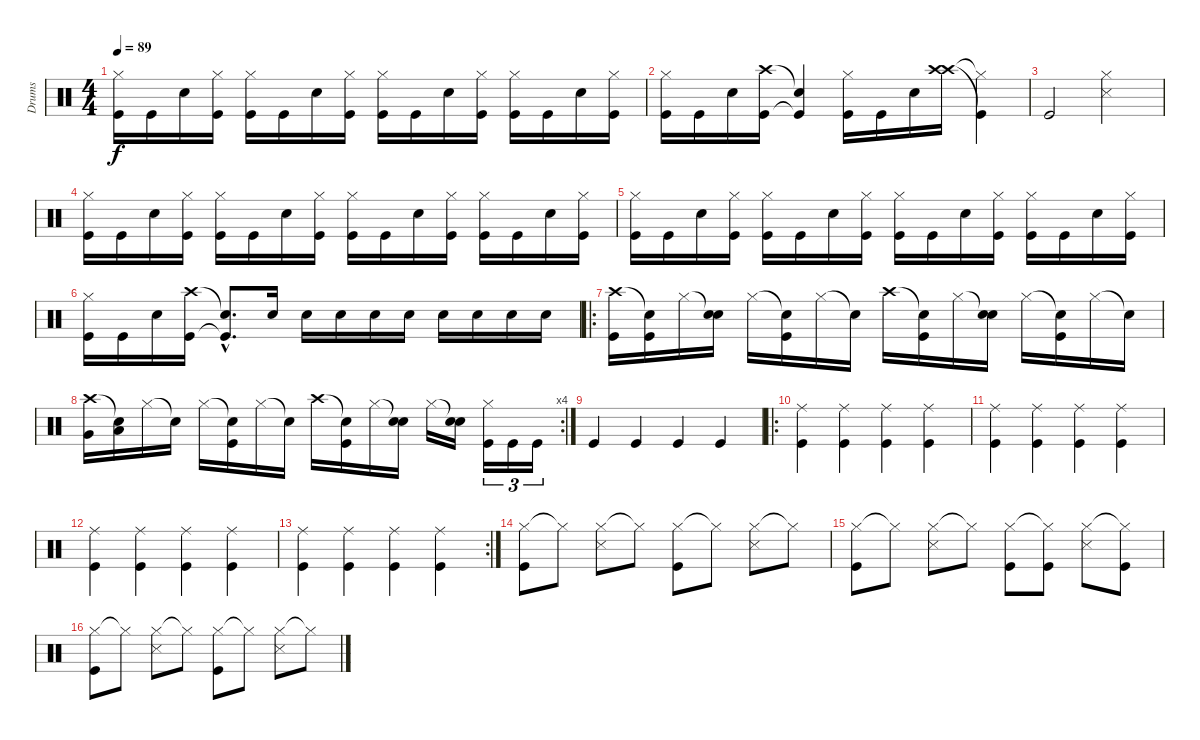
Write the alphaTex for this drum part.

\track ("Drums" "Drums") {instrument percussion}
\staff {score}
\articulation defaults
\ts (4 4)
\tempo 89
\clef neutral
\ks c
("Hi-Hat (closed)" "Kick (hit)").16{dy f} "Kick (hit)".16 "Snare (hit) 2".16 ("Hi-Hat (closed)" "Kick (hit)").16 ("Hi-Hat (closed)" "Kick (hit)").16 "Kick (hit)".16 "Snare (hit) 2".16 ("Hi-Hat (closed)" "Kick (hit)").16 ("Hi-Hat (closed)" "Kick (hit)").16 "Kick (hit)".16 "Snare (hit) 2".16 ("Hi-Hat (closed)" "Kick (hit)").16 ("Hi-Hat (closed)" "Kick (hit)").16 "Kick (hit)".16 "Snare (hit) 2".16 ("Hi-Hat (closed)" "Kick (hit)").16 |
("Hi-Hat (closed)" "Kick (hit)").16 "Kick (hit)".16 "Snare (hit) 2".16 ("Crash high (hit)" "Kick (hit)").16 ("Snare (hit)"{t} "Kick (hit)"{t}).4 ("Hi-Hat (closed)" "Kick (hit)").16 "Kick (hit)".16 "Snare (hit) 2".16 ("Crash high (hit)" "Crash high (hit)").16 ("Hi-Hat (closed)"{t} "Kick (hit)"{t}).4 |
"Kick (hit)".2 ("Hi-Hat (closed)" "Snare (side stick) 3").2 |
("Hi-Hat (closed)" "Kick (hit)").16 "Kick (hit)".16 "Snare (hit) 2".16 ("Hi-Hat (closed)" "Kick (hit)").16 ("Hi-Hat (closed)" "Kick (hit)").16 "Kick (hit)".16 "Snare (hit) 2".16 ("Hi-Hat (closed)" "Kick (hit)").16 ("Hi-Hat (closed)" "Kick (hit)").16 "Kick (hit)".16 "Snare (hit) 2".16 ("Hi-Hat (closed)" "Kick (hit)").16 ("Hi-Hat (closed)" "Kick (hit)").16 "Kick (hit)".16 "Snare (hit) 2".16 ("Hi-Hat (closed)" "Kick (hit)").16 |
("Hi-Hat (closed)" "Kick (hit)").16 "Kick (hit)".16 "Snare (hit) 2".16 ("Hi-Hat (closed)" "Kick (hit)").16 ("Hi-Hat (closed)" "Kick (hit)").16 "Kick (hit)".16 "Snare (hit) 2".16 ("Hi-Hat (closed)" "Kick (hit)").16 ("Hi-Hat (closed)" "Kick (hit)").16 "Kick (hit)".16 "Snare (hit) 2".16 ("Hi-Hat (closed)" "Kick (hit)").16 ("Hi-Hat (closed)" "Kick (hit)").16 "Kick (hit)".16 "Snare (hit) 2".16 ("Hi-Hat (closed)" "Kick (hit)").16 |
("Hi-Hat (closed)" "Kick (hit)").16 "Kick (hit)".16 "Snare (hit) 2".16 ("Crash high (hit)" "Kick (hit)").16 ("Snare (hit)"{hac t} "Kick (hit)"{hac t}).8{d} "Snare (hit) 2".16 "Snare (hit) 2".16 "Snare (hit) 2".16 "Snare (hit) 2".16 "Snare (hit) 2".16 "Snare (hit) 2".16 "Snare (hit) 2".16 "Snare (hit) 2".16 "Snare (hit) 2".16 |
\ro
("Crash high (hit)" "Kick (hit)").16 ("Snare (hit)"{t} "Kick (hit)").16 "Hi-Hat (closed)".16 ("Snare (hit)"{t} "Snare (hit) 2").16 "Hi-Hat (closed)".16 ("Snare (hit)"{t} "Kick (hit)").16 "Hi-Hat (closed)".16 "Snare (hit)"{t}.16 "Crash high (hit)".16 ("Snare (hit)"{t} "Kick (hit)").16 "Hi-Hat (closed)".16 ("Snare (hit)"{t} "Snare (hit) 2").16 "Hi-Hat (closed)".16 ("Snare (hit)"{t} "Kick (hit)").16 "Hi-Hat (closed)".16 "Snare (hit)"{t}.16 |
\rc 4
("Crash high (hit)" "Very Low Tom (hit)").16 ("Snare (hit)"{t} "Low Floor Tom (hit)").16 "Hi-Hat (closed)".16 "Snare (hit)"{t}.16 "Hi-Hat (closed)".16 ("Snare (hit)"{t} "Kick (hit)").16 "Hi-Hat (closed)".16 "Snare (hit)"{t}.16 "Crash high (hit)".16 ("Snare (hit)"{t} "Kick (hit)").16 "Hi-Hat (closed)".16 ("Snare (hit)"{t} "Snare (hit) 2").16 "Hi-Hat (closed)".16 ("Snare (hit)"{t} "Snare (hit) 2").16 ("Hi-Hat (closed)" "Kick (hit)").16{tu (3 2)} "Kick (hit)".16{tu (3 2)} "Kick (hit)".16{tu (3 2)} |
"Kick (hit)".4 "Kick (hit)".4 "Kick (hit)".4 "Kick (hit)".4 |
\ro
("Kick (hit)" "Ride (middle)").4 ("Kick (hit)" "Ride (middle)").4 ("Kick (hit)" "Ride (middle)").4 ("Kick (hit)" "Ride (middle)").4 |
("Kick (hit)" "Ride (middle)").4 ("Kick (hit)" "Ride (middle)").4 ("Kick (hit)" "Ride (middle)").4 ("Kick (hit)" "Ride (middle)").4 |
("Kick (hit)" "Ride (middle)").4 ("Kick (hit)" "Ride (middle)").4 ("Kick (hit)" "Ride (middle)").4 ("Kick (hit)" "Ride (middle)").4 |
\rc 2
("Kick (hit)" "Ride (middle)").4 ("Kick (hit)" "Ride (middle)").4 ("Kick (hit)" "Ride (middle)").4 ("Kick (hit)" "Ride (middle)").4 |
("Hi-Hat (closed)" "Kick (hit)").8 "Hi-Hat (closed)"{t}.8 ("Hi-Hat (closed)" "Snare (side stick) 3").8 "Hi-Hat (closed)"{t}.8 ("Hi-Hat (closed)" "Kick (hit)").8 "Hi-Hat (closed)"{t}.8 ("Hi-Hat (closed)" "Snare (side stick) 3").8 "Hi-Hat (closed)"{t}.8 |
("Hi-Hat (closed)" "Kick (hit)").8 "Hi-Hat (closed)"{t}.8 ("Hi-Hat (closed)" "Snare (side stick) 3").8 "Hi-Hat (closed)"{t}.8 ("Hi-Hat (closed)" "Kick (hit)").8 ("Hi-Hat (closed)"{t} "Kick (hit)").8 ("Hi-Hat (closed)" "Snare (side stick) 3").8 ("Hi-Hat (closed)"{t} "Kick (hit)").8 |
("Hi-Hat (closed)" "Kick (hit)").8 "Hi-Hat (closed)"{t}.8 ("Hi-Hat (closed)" "Snare (side stick) 3").8 "Hi-Hat (closed)"{t}.8 ("Hi-Hat (closed)" "Kick (hit)").8 "Hi-Hat (closed)"{t}.8 ("Hi-Hat (closed)" "Snare (side stick) 3").8 "Hi-Hat (closed)"{t}.8
